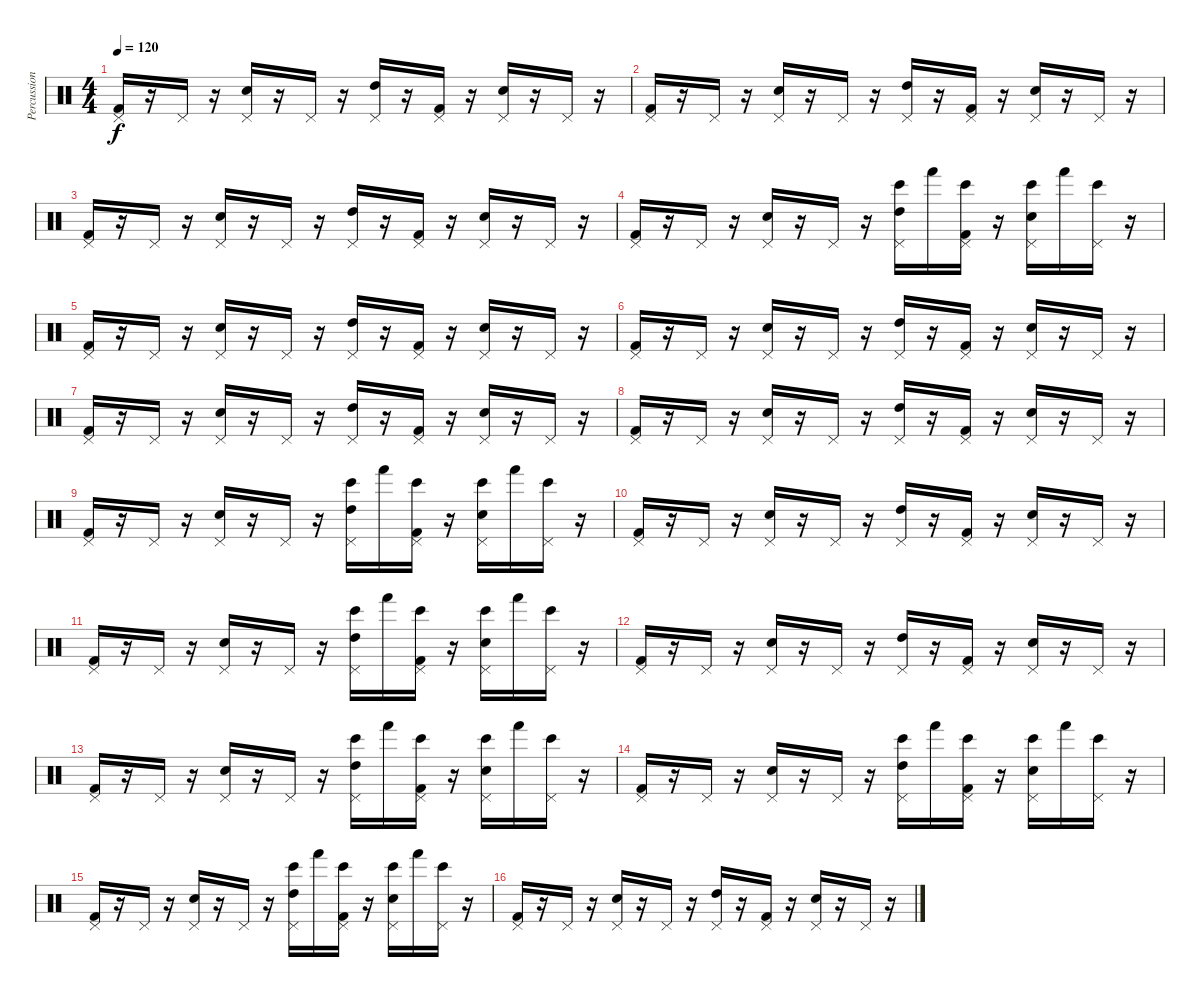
\track ("Percussion" "Percussion") {instrument percussion}
\staff {score}
\articulation defaults
\ts (4 4)
\tempo 120
\clef neutral
\ks c
("Pedal Hi-Hat (hit)" "Kick (hit) 2").16{dy f} r.16 "Pedal Hi-Hat (hit)".16 r.16 ("Pedal Hi-Hat (hit)" "Snare (hit) 2").16 r.16 "Pedal Hi-Hat (hit)".16 r.16 ("Pedal Hi-Hat (hit)" "High Tom (hit)").16 r.16 ("Pedal Hi-Hat (hit)" "Kick (hit) 2").16 r.16 ("Pedal Hi-Hat (hit)" "Snare (hit) 2").16 r.16 "Pedal Hi-Hat (hit)".16 r.16 |
("Pedal Hi-Hat (hit)" "Kick (hit) 2").16 r.16 "Pedal Hi-Hat (hit)".16 r.16 ("Pedal Hi-Hat (hit)" "Snare (hit) 2").16 r.16 "Pedal Hi-Hat (hit)".16 r.16 ("Pedal Hi-Hat (hit)" "High Tom (hit)").16 r.16 ("Pedal Hi-Hat (hit)" "Kick (hit) 2").16 r.16 ("Pedal Hi-Hat (hit)" "Snare (hit) 2").16 r.16 "Pedal Hi-Hat (hit)".16 r.16 |
("Pedal Hi-Hat (hit)" "Kick (hit) 2").16 r.16 "Pedal Hi-Hat (hit)".16 r.16 ("Pedal Hi-Hat (hit)" "Snare (hit) 2").16 r.16 "Pedal Hi-Hat (hit)".16 r.16 ("Pedal Hi-Hat (hit)" "High Tom (hit)").16 r.16 ("Pedal Hi-Hat (hit)" "Kick (hit) 2").16 r.16 ("Pedal Hi-Hat (hit)" "Snare (hit) 2").16 r.16 "Pedal Hi-Hat (hit)".16 r.16 |
("Pedal Hi-Hat (hit)" "Kick (hit) 2").16 r.16 "Pedal Hi-Hat (hit)".16 r.16 ("Pedal Hi-Hat (hit)" "Snare (hit) 2").16 r.16 "Pedal Hi-Hat (hit)".16 r.16 ("Bongo High (hit)" "Pedal Hi-Hat (hit)" "High Tom (hit)").16 "Hand (hit)".16 ("Bongo High (hit)" "Pedal Hi-Hat (hit)" "Kick (hit) 2").16 r.16 ("Bongo High (hit)" "Pedal Hi-Hat (hit)" "Snare (hit) 2").16 "Hand (hit)".16 ("Bongo High (hit)" "Pedal Hi-Hat (hit)").16 r.16 |
("Pedal Hi-Hat (hit)" "Kick (hit) 2").16 r.16 "Pedal Hi-Hat (hit)".16 r.16 ("Pedal Hi-Hat (hit)" "Snare (hit) 2").16 r.16 "Pedal Hi-Hat (hit)".16 r.16 ("Pedal Hi-Hat (hit)" "High Tom (hit)").16 r.16 ("Pedal Hi-Hat (hit)" "Kick (hit) 2").16 r.16 ("Pedal Hi-Hat (hit)" "Snare (hit) 2").16 r.16 "Pedal Hi-Hat (hit)".16 r.16 |
("Pedal Hi-Hat (hit)" "Kick (hit) 2").16 r.16 "Pedal Hi-Hat (hit)".16 r.16 ("Pedal Hi-Hat (hit)" "Snare (hit) 2").16 r.16 "Pedal Hi-Hat (hit)".16 r.16 ("Pedal Hi-Hat (hit)" "High Tom (hit)").16 r.16 ("Pedal Hi-Hat (hit)" "Kick (hit) 2").16 r.16 ("Pedal Hi-Hat (hit)" "Snare (hit) 2").16 r.16 "Pedal Hi-Hat (hit)".16 r.16 |
("Pedal Hi-Hat (hit)" "Kick (hit) 2").16 r.16 "Pedal Hi-Hat (hit)".16 r.16 ("Pedal Hi-Hat (hit)" "Snare (hit) 2").16 r.16 "Pedal Hi-Hat (hit)".16 r.16 ("Pedal Hi-Hat (hit)" "High Tom (hit)").16 r.16 ("Pedal Hi-Hat (hit)" "Kick (hit) 2").16 r.16 ("Pedal Hi-Hat (hit)" "Snare (hit) 2").16 r.16 "Pedal Hi-Hat (hit)".16 r.16 |
("Pedal Hi-Hat (hit)" "Kick (hit) 2").16 r.16 "Pedal Hi-Hat (hit)".16 r.16 ("Pedal Hi-Hat (hit)" "Snare (hit) 2").16 r.16 "Pedal Hi-Hat (hit)".16 r.16 ("Pedal Hi-Hat (hit)" "High Tom (hit)").16 r.16 ("Pedal Hi-Hat (hit)" "Kick (hit) 2").16 r.16 ("Pedal Hi-Hat (hit)" "Snare (hit) 2").16 r.16 "Pedal Hi-Hat (hit)".16 r.16 |
("Pedal Hi-Hat (hit)" "Kick (hit) 2").16 r.16 "Pedal Hi-Hat (hit)".16 r.16 ("Pedal Hi-Hat (hit)" "Snare (hit) 2").16 r.16 "Pedal Hi-Hat (hit)".16 r.16 ("Bongo High (hit)" "Pedal Hi-Hat (hit)" "High Tom (hit)").16 "Hand (hit)".16 ("Bongo High (hit)" "Pedal Hi-Hat (hit)" "Kick (hit) 2").16 r.16 ("Bongo High (hit)" "Pedal Hi-Hat (hit)" "Snare (hit) 2").16 "Hand (hit)".16 ("Bongo High (hit)" "Pedal Hi-Hat (hit)").16 r.16 |
("Pedal Hi-Hat (hit)" "Kick (hit) 2").16 r.16 "Pedal Hi-Hat (hit)".16 r.16 ("Pedal Hi-Hat (hit)" "Snare (hit) 2").16 r.16 "Pedal Hi-Hat (hit)".16 r.16 ("Pedal Hi-Hat (hit)" "High Tom (hit)").16 r.16 ("Pedal Hi-Hat (hit)" "Kick (hit) 2").16 r.16 ("Pedal Hi-Hat (hit)" "Snare (hit) 2").16 r.16 "Pedal Hi-Hat (hit)".16 r.16 |
("Pedal Hi-Hat (hit)" "Kick (hit) 2").16 r.16 "Pedal Hi-Hat (hit)".16 r.16 ("Pedal Hi-Hat (hit)" "Snare (hit) 2").16 r.16 "Pedal Hi-Hat (hit)".16 r.16 ("Bongo High (hit)" "Pedal Hi-Hat (hit)" "High Tom (hit)").16 "Hand (hit)".16 ("Bongo High (hit)" "Pedal Hi-Hat (hit)" "Kick (hit) 2").16 r.16 ("Bongo High (hit)" "Pedal Hi-Hat (hit)" "Snare (hit) 2").16 "Hand (hit)".16 ("Bongo High (hit)" "Pedal Hi-Hat (hit)").16 r.16 |
("Pedal Hi-Hat (hit)" "Kick (hit) 2").16 r.16 "Pedal Hi-Hat (hit)".16 r.16 ("Pedal Hi-Hat (hit)" "Snare (hit) 2").16 r.16 "Pedal Hi-Hat (hit)".16 r.16 ("Pedal Hi-Hat (hit)" "High Tom (hit)").16 r.16 ("Pedal Hi-Hat (hit)" "Kick (hit) 2").16 r.16 ("Pedal Hi-Hat (hit)" "Snare (hit) 2").16 r.16 "Pedal Hi-Hat (hit)".16 r.16 |
("Pedal Hi-Hat (hit)" "Kick (hit) 2").16 r.16 "Pedal Hi-Hat (hit)".16 r.16 ("Pedal Hi-Hat (hit)" "Snare (hit) 2").16 r.16 "Pedal Hi-Hat (hit)".16 r.16 ("Bongo High (hit)" "Pedal Hi-Hat (hit)" "High Tom (hit)").16 "Hand (hit)".16 ("Bongo High (hit)" "Pedal Hi-Hat (hit)" "Kick (hit) 2").16 r.16 ("Bongo High (hit)" "Pedal Hi-Hat (hit)" "Snare (hit) 2").16 "Hand (hit)".16 ("Bongo High (hit)" "Pedal Hi-Hat (hit)").16 r.16 |
("Pedal Hi-Hat (hit)" "Kick (hit) 2").16 r.16 "Pedal Hi-Hat (hit)".16 r.16 ("Pedal Hi-Hat (hit)" "Snare (hit) 2").16 r.16 "Pedal Hi-Hat (hit)".16 r.16 ("Bongo High (hit)" "Pedal Hi-Hat (hit)" "High Tom (hit)").16 "Hand (hit)".16 ("Bongo High (hit)" "Pedal Hi-Hat (hit)" "Kick (hit) 2").16 r.16 ("Bongo High (hit)" "Pedal Hi-Hat (hit)" "Snare (hit) 2").16 "Hand (hit)".16 ("Bongo High (hit)" "Pedal Hi-Hat (hit)").16 r.16 |
("Pedal Hi-Hat (hit)" "Kick (hit) 2").16 r.16 "Pedal Hi-Hat (hit)".16 r.16 ("Pedal Hi-Hat (hit)" "Snare (hit) 2").16 r.16 "Pedal Hi-Hat (hit)".16 r.16 ("Bongo High (hit)" "Pedal Hi-Hat (hit)" "High Tom (hit)").16 "Hand (hit)".16 ("Bongo High (hit)" "Pedal Hi-Hat (hit)" "Kick (hit) 2").16 r.16 ("Bongo High (hit)" "Pedal Hi-Hat (hit)" "Snare (hit) 2").16 "Hand (hit)".16 ("Bongo High (hit)" "Pedal Hi-Hat (hit)").16 r.16 |
("Pedal Hi-Hat (hit)" "Kick (hit) 2").16 r.16 "Pedal Hi-Hat (hit)".16 r.16 ("Pedal Hi-Hat (hit)" "Snare (hit) 2").16 r.16 "Pedal Hi-Hat (hit)".16 r.16 ("Pedal Hi-Hat (hit)" "High Tom (hit)").16 r.16 ("Pedal Hi-Hat (hit)" "Kick (hit) 2").16 r.16 ("Pedal Hi-Hat (hit)" "Snare (hit) 2").16 r.16 "Pedal Hi-Hat (hit)".16 r.16
